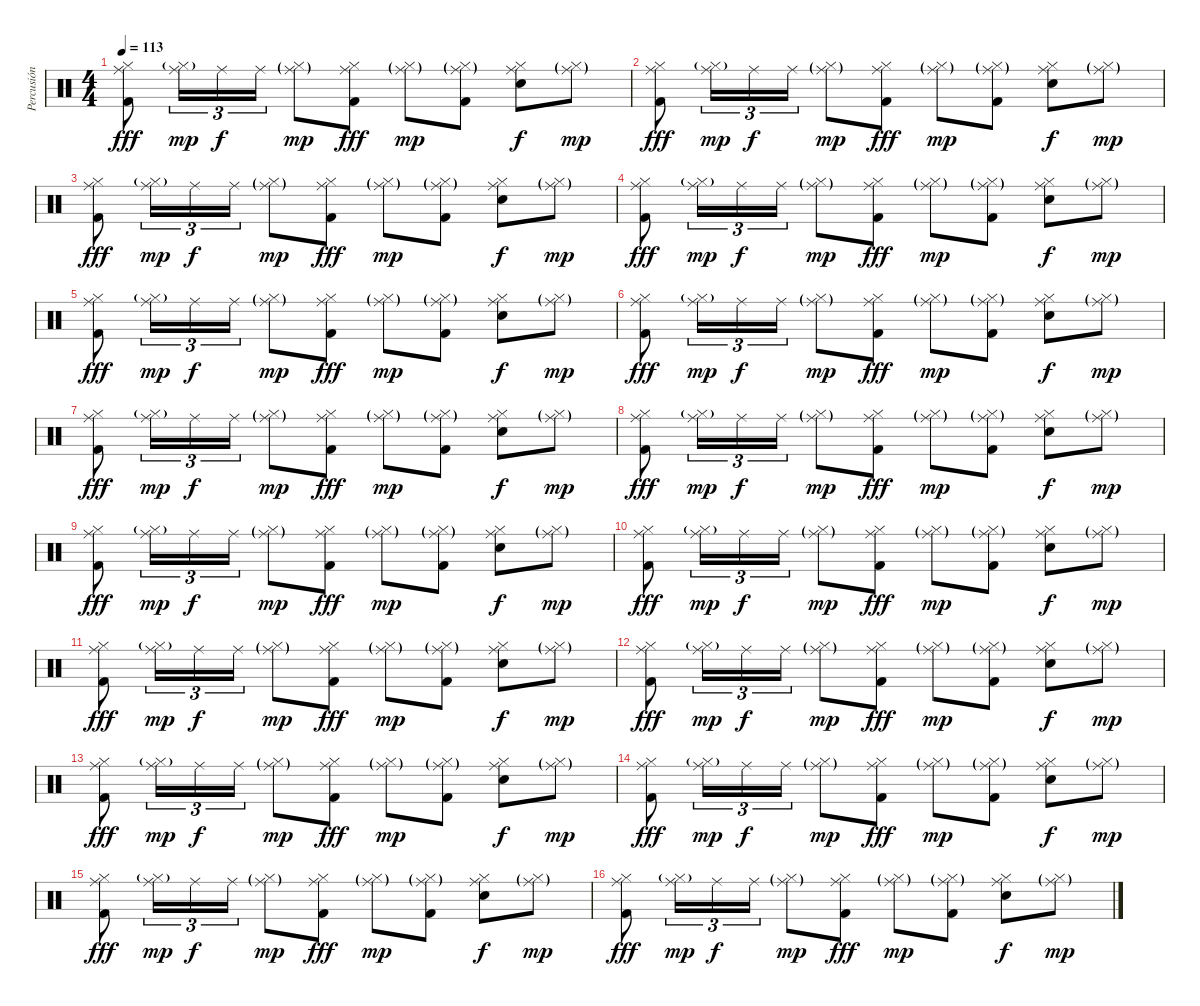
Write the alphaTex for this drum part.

\track ("Percusión" "Percusión") {instrument percussion}
\staff {score}
\articulation defaults
\ts (4 4)
\tempo 113
\clef neutral
\ks c
("Kick (hit) 2" "Hi-Hat (closed)" "Ride (middle)").8{dy fff} ("Hi-Hat (closed)"{g} "Ride (middle)").16{tu (3 2) dy mp} "Ride (middle)".16{tu (3 2) dy f} "Ride (middle)".16{tu (3 2)} ("Hi-Hat (closed)"{g} "Ride (middle)"{g}).8{dy mp} ("Kick (hit) 2" "Hi-Hat (closed)" "Ride (middle)").8{dy fff} ("Hi-Hat (closed)"{g} "Ride (middle)"{g}).8{dy mp} ("Kick (hit) 2" "Hi-Hat (closed)"{g} "Ride (middle)"{g}).8 ("Snare (hit) 2" "Hi-Hat (closed)" "Ride (middle)").8{dy f} ("Hi-Hat (closed)"{g} "Ride (middle)"{g}).8{dy mp} |
("Kick (hit) 2" "Hi-Hat (closed)" "Ride (middle)").8{dy fff} ("Hi-Hat (closed)"{g} "Ride (middle)").16{tu (3 2) dy mp} "Ride (middle)".16{tu (3 2) dy f} "Ride (middle)".16{tu (3 2)} ("Hi-Hat (closed)"{g} "Ride (middle)"{g}).8{dy mp} ("Kick (hit) 2" "Hi-Hat (closed)" "Ride (middle)").8{dy fff} ("Hi-Hat (closed)"{g} "Ride (middle)"{g}).8{dy mp} ("Kick (hit) 2" "Hi-Hat (closed)"{g} "Ride (middle)"{g}).8 ("Snare (hit) 2" "Hi-Hat (closed)" "Ride (middle)").8{dy f} ("Hi-Hat (closed)"{g} "Ride (middle)"{g}).8{dy mp} |
("Kick (hit) 2" "Hi-Hat (closed)" "Ride (middle)").8{dy fff} ("Hi-Hat (closed)"{g} "Ride (middle)").16{tu (3 2) dy mp} "Ride (middle)".16{tu (3 2) dy f} "Ride (middle)".16{tu (3 2)} ("Hi-Hat (closed)"{g} "Ride (middle)"{g}).8{dy mp} ("Kick (hit) 2" "Hi-Hat (closed)" "Ride (middle)").8{dy fff} ("Hi-Hat (closed)"{g} "Ride (middle)"{g}).8{dy mp} ("Kick (hit) 2" "Hi-Hat (closed)"{g} "Ride (middle)"{g}).8 ("Snare (hit) 2" "Hi-Hat (closed)" "Ride (middle)").8{dy f} ("Hi-Hat (closed)"{g} "Ride (middle)"{g}).8{dy mp} |
("Kick (hit) 2" "Hi-Hat (closed)" "Ride (middle)").8{dy fff} ("Hi-Hat (closed)"{g} "Ride (middle)").16{tu (3 2) dy mp} "Ride (middle)".16{tu (3 2) dy f} "Ride (middle)".16{tu (3 2)} ("Hi-Hat (closed)"{g} "Ride (middle)"{g}).8{dy mp} ("Kick (hit) 2" "Hi-Hat (closed)" "Ride (middle)").8{dy fff} ("Hi-Hat (closed)"{g} "Ride (middle)"{g}).8{dy mp} ("Kick (hit) 2" "Hi-Hat (closed)"{g} "Ride (middle)"{g}).8 ("Snare (hit) 2" "Hi-Hat (closed)" "Ride (middle)").8{dy f} ("Hi-Hat (closed)"{g} "Ride (middle)"{g}).8{dy mp} |
("Kick (hit) 2" "Hi-Hat (closed)" "Ride (middle)").8{dy fff} ("Hi-Hat (closed)"{g} "Ride (middle)").16{tu (3 2) dy mp} "Ride (middle)".16{tu (3 2) dy f} "Ride (middle)".16{tu (3 2)} ("Hi-Hat (closed)"{g} "Ride (middle)"{g}).8{dy mp} ("Kick (hit) 2" "Hi-Hat (closed)" "Ride (middle)").8{dy fff} ("Hi-Hat (closed)"{g} "Ride (middle)"{g}).8{dy mp} ("Kick (hit) 2" "Hi-Hat (closed)"{g} "Ride (middle)"{g}).8 ("Snare (hit) 2" "Hi-Hat (closed)" "Ride (middle)").8{dy f} ("Hi-Hat (closed)"{g} "Ride (middle)"{g}).8{dy mp} |
("Kick (hit) 2" "Hi-Hat (closed)" "Ride (middle)").8{dy fff} ("Hi-Hat (closed)"{g} "Ride (middle)").16{tu (3 2) dy mp} "Ride (middle)".16{tu (3 2) dy f} "Ride (middle)".16{tu (3 2)} ("Hi-Hat (closed)"{g} "Ride (middle)"{g}).8{dy mp} ("Kick (hit) 2" "Hi-Hat (closed)" "Ride (middle)").8{dy fff} ("Hi-Hat (closed)"{g} "Ride (middle)"{g}).8{dy mp} ("Kick (hit) 2" "Hi-Hat (closed)"{g} "Ride (middle)"{g}).8 ("Snare (hit) 2" "Hi-Hat (closed)" "Ride (middle)").8{dy f} ("Hi-Hat (closed)"{g} "Ride (middle)"{g}).8{dy mp} |
("Kick (hit) 2" "Hi-Hat (closed)" "Ride (middle)").8{dy fff} ("Hi-Hat (closed)"{g} "Ride (middle)").16{tu (3 2) dy mp} "Ride (middle)".16{tu (3 2) dy f} "Ride (middle)".16{tu (3 2)} ("Hi-Hat (closed)"{g} "Ride (middle)"{g}).8{dy mp} ("Kick (hit) 2" "Hi-Hat (closed)" "Ride (middle)").8{dy fff} ("Hi-Hat (closed)"{g} "Ride (middle)"{g}).8{dy mp} ("Kick (hit) 2" "Hi-Hat (closed)"{g} "Ride (middle)"{g}).8 ("Snare (hit) 2" "Hi-Hat (closed)" "Ride (middle)").8{dy f} ("Hi-Hat (closed)"{g} "Ride (middle)"{g}).8{dy mp} |
("Kick (hit) 2" "Hi-Hat (closed)" "Ride (middle)").8{dy fff} ("Hi-Hat (closed)"{g} "Ride (middle)").16{tu (3 2) dy mp} "Ride (middle)".16{tu (3 2) dy f} "Ride (middle)".16{tu (3 2)} ("Hi-Hat (closed)"{g} "Ride (middle)"{g}).8{dy mp} ("Kick (hit) 2" "Hi-Hat (closed)" "Ride (middle)").8{dy fff} ("Hi-Hat (closed)"{g} "Ride (middle)"{g}).8{dy mp} ("Kick (hit) 2" "Hi-Hat (closed)"{g} "Ride (middle)"{g}).8 ("Snare (hit) 2" "Hi-Hat (closed)" "Ride (middle)").8{dy f} ("Hi-Hat (closed)"{g} "Ride (middle)"{g}).8{dy mp} |
("Kick (hit) 2" "Hi-Hat (closed)" "Ride (middle)").8{dy fff} ("Hi-Hat (closed)"{g} "Ride (middle)").16{tu (3 2) dy mp} "Ride (middle)".16{tu (3 2) dy f} "Ride (middle)".16{tu (3 2)} ("Hi-Hat (closed)"{g} "Ride (middle)"{g}).8{dy mp} ("Kick (hit) 2" "Hi-Hat (closed)" "Ride (middle)").8{dy fff} ("Hi-Hat (closed)"{g} "Ride (middle)"{g}).8{dy mp} ("Kick (hit) 2" "Hi-Hat (closed)"{g} "Ride (middle)"{g}).8 ("Snare (hit) 2" "Hi-Hat (closed)" "Ride (middle)").8{dy f} ("Hi-Hat (closed)"{g} "Ride (middle)"{g}).8{dy mp} |
("Kick (hit) 2" "Hi-Hat (closed)" "Ride (middle)").8{dy fff} ("Hi-Hat (closed)"{g} "Ride (middle)").16{tu (3 2) dy mp} "Ride (middle)".16{tu (3 2) dy f} "Ride (middle)".16{tu (3 2)} ("Hi-Hat (closed)"{g} "Ride (middle)"{g}).8{dy mp} ("Kick (hit) 2" "Hi-Hat (closed)" "Ride (middle)").8{dy fff} ("Hi-Hat (closed)"{g} "Ride (middle)"{g}).8{dy mp} ("Kick (hit) 2" "Hi-Hat (closed)"{g} "Ride (middle)"{g}).8 ("Snare (hit) 2" "Hi-Hat (closed)" "Ride (middle)").8{dy f} ("Hi-Hat (closed)"{g} "Ride (middle)"{g}).8{dy mp} |
("Kick (hit) 2" "Hi-Hat (closed)" "Ride (middle)").8{dy fff} ("Hi-Hat (closed)"{g} "Ride (middle)").16{tu (3 2) dy mp} "Ride (middle)".16{tu (3 2) dy f} "Ride (middle)".16{tu (3 2)} ("Hi-Hat (closed)"{g} "Ride (middle)"{g}).8{dy mp} ("Kick (hit) 2" "Hi-Hat (closed)" "Ride (middle)").8{dy fff} ("Hi-Hat (closed)"{g} "Ride (middle)"{g}).8{dy mp} ("Kick (hit) 2" "Hi-Hat (closed)"{g} "Ride (middle)"{g}).8 ("Snare (hit) 2" "Hi-Hat (closed)" "Ride (middle)").8{dy f} ("Hi-Hat (closed)"{g} "Ride (middle)"{g}).8{dy mp} |
("Kick (hit) 2" "Hi-Hat (closed)" "Ride (middle)").8{dy fff} ("Hi-Hat (closed)"{g} "Ride (middle)").16{tu (3 2) dy mp} "Ride (middle)".16{tu (3 2) dy f} "Ride (middle)".16{tu (3 2)} ("Hi-Hat (closed)"{g} "Ride (middle)"{g}).8{dy mp} ("Kick (hit) 2" "Hi-Hat (closed)" "Ride (middle)").8{dy fff} ("Hi-Hat (closed)"{g} "Ride (middle)"{g}).8{dy mp} ("Kick (hit) 2" "Hi-Hat (closed)"{g} "Ride (middle)"{g}).8 ("Snare (hit) 2" "Hi-Hat (closed)" "Ride (middle)").8{dy f} ("Hi-Hat (closed)"{g} "Ride (middle)"{g}).8{dy mp} |
("Kick (hit) 2" "Hi-Hat (closed)" "Ride (middle)").8{dy fff} ("Hi-Hat (closed)"{g} "Ride (middle)").16{tu (3 2) dy mp} "Ride (middle)".16{tu (3 2) dy f} "Ride (middle)".16{tu (3 2)} ("Hi-Hat (closed)"{g} "Ride (middle)"{g}).8{dy mp} ("Kick (hit) 2" "Hi-Hat (closed)" "Ride (middle)").8{dy fff} ("Hi-Hat (closed)"{g} "Ride (middle)"{g}).8{dy mp} ("Kick (hit) 2" "Hi-Hat (closed)"{g} "Ride (middle)"{g}).8 ("Snare (hit) 2" "Hi-Hat (closed)" "Ride (middle)").8{dy f} ("Hi-Hat (closed)"{g} "Ride (middle)"{g}).8{dy mp} |
("Kick (hit) 2" "Hi-Hat (closed)" "Ride (middle)").8{dy fff} ("Hi-Hat (closed)"{g} "Ride (middle)").16{tu (3 2) dy mp} "Ride (middle)".16{tu (3 2) dy f} "Ride (middle)".16{tu (3 2)} ("Hi-Hat (closed)"{g} "Ride (middle)"{g}).8{dy mp} ("Kick (hit) 2" "Hi-Hat (closed)" "Ride (middle)").8{dy fff} ("Hi-Hat (closed)"{g} "Ride (middle)"{g}).8{dy mp} ("Kick (hit) 2" "Hi-Hat (closed)"{g} "Ride (middle)"{g}).8 ("Snare (hit) 2" "Hi-Hat (closed)" "Ride (middle)").8{dy f} ("Hi-Hat (closed)"{g} "Ride (middle)"{g}).8{dy mp} |
("Kick (hit) 2" "Hi-Hat (closed)" "Ride (middle)").8{dy fff} ("Hi-Hat (closed)"{g} "Ride (middle)").16{tu (3 2) dy mp} "Ride (middle)".16{tu (3 2) dy f} "Ride (middle)".16{tu (3 2)} ("Hi-Hat (closed)"{g} "Ride (middle)"{g}).8{dy mp} ("Kick (hit) 2" "Hi-Hat (closed)" "Ride (middle)").8{dy fff} ("Hi-Hat (closed)"{g} "Ride (middle)"{g}).8{dy mp} ("Kick (hit) 2" "Hi-Hat (closed)"{g} "Ride (middle)"{g}).8 ("Snare (hit) 2" "Hi-Hat (closed)" "Ride (middle)").8{dy f} ("Hi-Hat (closed)"{g} "Ride (middle)"{g}).8{dy mp} |
("Kick (hit) 2" "Hi-Hat (closed)" "Ride (middle)").8{dy fff} ("Hi-Hat (closed)"{g} "Ride (middle)").16{tu (3 2) dy mp} "Ride (middle)".16{tu (3 2) dy f} "Ride (middle)".16{tu (3 2)} ("Hi-Hat (closed)"{g} "Ride (middle)"{g}).8{dy mp} ("Kick (hit) 2" "Hi-Hat (closed)" "Ride (middle)").8{dy fff} ("Hi-Hat (closed)"{g} "Ride (middle)"{g}).8{dy mp} ("Kick (hit) 2" "Hi-Hat (closed)"{g} "Ride (middle)"{g}).8 ("Snare (hit) 2" "Hi-Hat (closed)" "Ride (middle)").8{dy f} ("Hi-Hat (closed)"{g} "Ride (middle)"{g}).8{dy mp}
